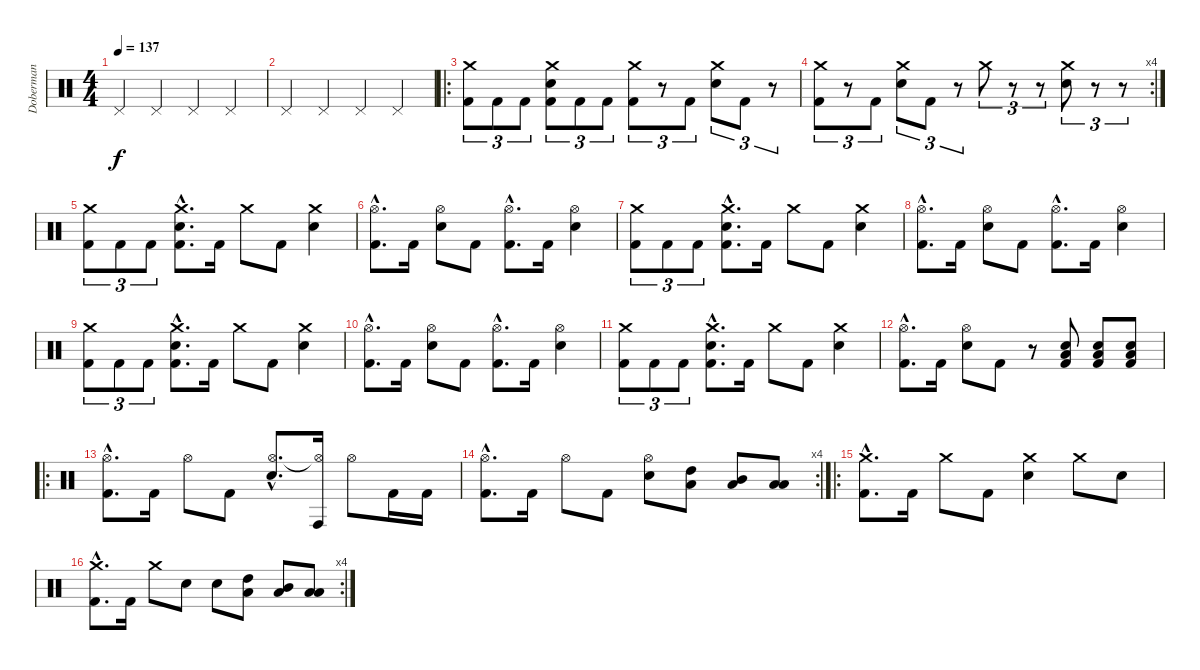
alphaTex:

\track ("Doberman" "Doberman") {instrument percussion}
\staff {score}
\articulation defaults
\ts (4 4)
\tempo 137
\clef neutral
\ks c "Pedal Hi-Hat (hit)".4{dy f} "Pedal Hi-Hat (hit)".4 "Pedal Hi-Hat (hit)".4 "Pedal Hi-Hat (hit)".4
|
"Pedal Hi-Hat (hit)".4 "Pedal Hi-Hat (hit)".4 "Pedal Hi-Hat (hit)".4 "Pedal Hi-Hat (hit)".4 |
\ro
("Crash medium (hit)" "Kick (hit) 2").8{tu (3 2)} "Kick (hit) 2".8{tu (3 2)} "Kick (hit) 2".8{tu (3 2)} ("Crash medium (hit)" "Snare (hit) 2" "Kick (hit) 2").8{tu (3 2)} "Kick (hit) 2".8{tu (3 2)} "Kick (hit) 2".8{tu (3 2)} ("Crash medium (hit)" "Kick (hit) 2").8{tu (3 2)} r.8{tu (3 2)} "Kick (hit) 2".8{tu (3 2)} ("Crash medium (hit)" "Snare (hit) 2").8{tu (3 2)} "Kick (hit) 2".8{tu (3 2)} r.8{tu (3 2)} |
\rc 4
("Crash medium (hit)" "Kick (hit) 2").8{tu (3 2)} r.8{tu (3 2)} "Kick (hit) 2".8{tu (3 2)} ("Crash medium (hit)" "Snare (hit) 2").8{tu (3 2)} "Kick (hit) 2".8{tu (3 2)} r.8{tu (3 2)} "Crash medium (hit)".8{tu (3 2)} r.8{tu (3 2)} r.8{tu (3 2)} ("Crash medium (hit)" "Snare (hit) 2").8{tu (3 2)} r.8{tu (3 2)} r.8{tu (3 2)} |
("Crash medium (hit)" "Kick (hit) 2").8{tu (3 2)} "Kick (hit) 2".8{tu (3 2)} "Kick (hit) 2".8{tu (3 2)} ("Snare (hit) 2"{hac} "Crash medium (hit)"{hac} "Kick (hit) 2"{hac}).8{d} "Kick (hit) 2".16 "Crash medium (hit)".8 "Kick (hit) 2".8 ("Snare (hit) 2" "Crash medium (hit)").4 |
("Hi-Hat (open)"{hac} "Kick (hit) 2"{hac}).8{d} "Kick (hit) 2".16 ("Snare (hit) 2" "Hi-Hat (open)").8 "Kick (hit) 2".8 ("Hi-Hat (open)"{hac} "Kick (hit) 2"{hac}).8{d} "Kick (hit) 2".16 ("Snare (hit) 2" "Hi-Hat (open)").4 |
("Crash medium (hit)" "Kick (hit) 2").8{tu (3 2)} "Kick (hit) 2".8{tu (3 2)} "Kick (hit) 2".8{tu (3 2)} ("Snare (hit) 2"{hac} "Crash medium (hit)"{hac} "Kick (hit) 2"{hac}).8{d} "Kick (hit) 2".16 "Crash medium (hit)".8 "Kick (hit) 2".8 ("Snare (hit) 2" "Crash medium (hit)").4 |
("Hi-Hat (open)"{hac} "Kick (hit) 2"{hac}).8{d} "Kick (hit) 2".16 ("Snare (hit) 2" "Hi-Hat (open)").8 "Kick (hit) 2".8 ("Hi-Hat (open)"{hac} "Kick (hit) 2"{hac}).8{d} "Kick (hit) 2".16 ("Snare (hit) 2" "Hi-Hat (open)").4 |
("Crash medium (hit)" "Kick (hit) 2").8{tu (3 2)} "Kick (hit) 2".8{tu (3 2)} "Kick (hit) 2".8{tu (3 2)} ("Snare (hit) 2"{hac} "Crash medium (hit)"{hac} "Kick (hit) 2"{hac}).8{d} "Kick (hit) 2".16 "Crash medium (hit)".8 "Kick (hit) 2".8 ("Snare (hit) 2" "Crash medium (hit)").4 |
("Hi-Hat (open)"{hac} "Kick (hit) 2"{hac}).8{d} "Kick (hit) 2".16 ("Snare (hit) 2" "Hi-Hat (open)").8 "Kick (hit) 2".8 ("Hi-Hat (open)"{hac} "Kick (hit) 2"{hac}).8{d} "Kick (hit) 2".16 ("Snare (hit) 2" "Hi-Hat (open)").4 |
("Crash medium (hit)" "Kick (hit) 2").8{tu (3 2)} "Kick (hit) 2".8{tu (3 2)} "Kick (hit) 2".8{tu (3 2)} ("Snare (hit) 2"{hac} "Crash medium (hit)"{hac} "Kick (hit) 2"{hac}).8{d} "Kick (hit) 2".16 "Crash medium (hit)".8 "Kick (hit) 2".8 ("Snare (hit) 2" "Crash medium (hit)").4 |
("Hi-Hat (open)"{hac} "Kick (hit) 2"{hac}).8{d} "Kick (hit) 2".16 ("Snare (hit) 2" "Hi-Hat (open)").8 "Kick (hit) 2".8 r.8 ("Snare (hit) 2" "Low Tom (hit)" "Kick (hit) 2").8 ("Snare (hit) 2" "Low Tom (hit)" "Kick (hit) 2").8 ("Snare (hit) 2" "Low Tom (hit)" "Kick (hit) 2").8 |
\ro
("Hi-Hat (open)"{hac} "Kick (hit) 2"{hac}).8{d} "Kick (hit) 2".16 "Hi-Hat (open)".8 "Kick (hit) 2".8 ("Snare (hit) 2"{hac} "Hi-Hat (open)"{hac}).8{d} ("Conga high (hit)" "Hi-Hat (open)"{t}).16 "Hi-Hat (open)".8 "Kick (hit) 2".16 "Kick (hit) 2".16 |
\rc 4
("Hi-Hat (open)"{hac} "Kick (hit) 2"{hac}).8{d} "Kick (hit) 2".16 "Hi-Hat (open)".8 "Kick (hit) 2".8 ("Snare (hit) 2" "Hi-Hat (open)").8 ("High Tom (hit)" "Low Tom (hit)").8 ("Mid Tom (hit)" "Low Tom (hit)").8 ("Low Tom (hit)" "Low Tom (hit)").8 |
\ro
("Crash medium (hit)"{hac} "Kick (hit) 2"{hac}).8{d} "Kick (hit) 2".16 "Crash medium (hit)".8 "Kick (hit) 2".8 ("Snare (hit) 2" "Crash medium (hit)").4 "Crash medium (hit)".8 "Snare (hit) 2".8 |
\rc 4
("Crash medium (hit)"{hac} "Kick (hit) 2"{hac}).8{d} "Kick (hit) 2".16 "Crash medium (hit)".8 "Snare (hit) 2".8 "Snare (hit) 2".8 ("High Tom (hit)" "Low Tom (hit)").8 ("Mid Tom (hit)" "Low Tom (hit)").8 ("Low Tom (hit)" "Low Tom (hit)").8
